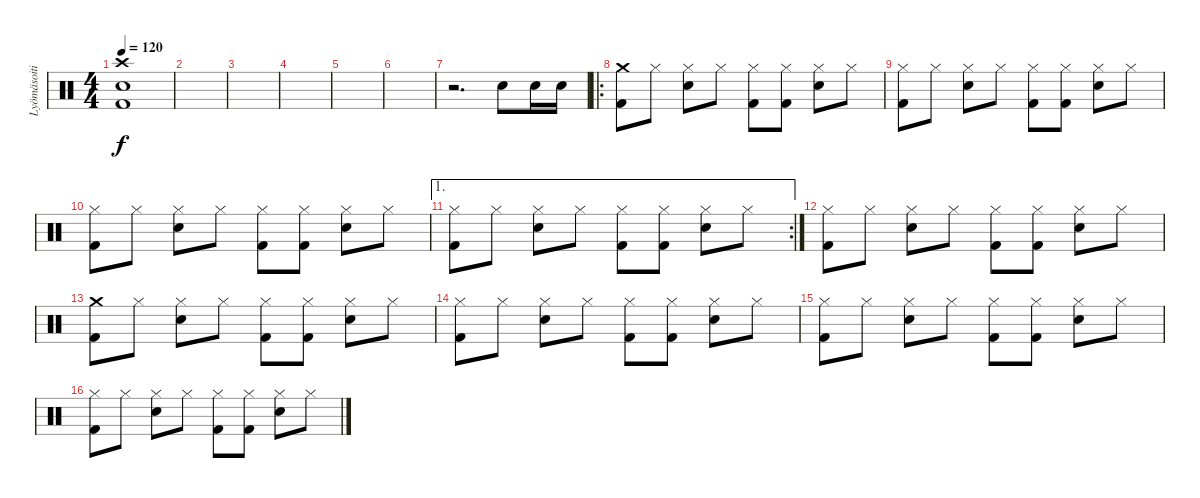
\track ("Lyömäsoitin" "Lyömäsoiti") {instrument percussion}
\staff {score}
\articulation defaults
\ts (4 4)
\tempo 120
\clef neutral
\ks c
("Crash high (hit)" "Electric Snare (hit)" "Kick (hit) 2").1{dy f} |
|
|
|
|
|
r.2{d} "Electric Snare (hit)".8 "Electric Snare (hit)".16 "Electric Snare (hit)".16 |
\ro
("Crash medium (hit)" "Kick (hit) 2").8 "Hi-Hat (closed)".8 ("Hi-Hat (closed)" "Electric Snare (hit)").8 "Hi-Hat (closed)".8 ("Hi-Hat (closed)" "Kick (hit) 2").8 ("Hi-Hat (closed)" "Kick (hit) 2").8 ("Hi-Hat (closed)" "Electric Snare (hit)").8 "Hi-Hat (closed)".8 |
("Hi-Hat (closed)" "Kick (hit) 2").8 "Hi-Hat (closed)".8 ("Hi-Hat (closed)" "Electric Snare (hit)").8 "Hi-Hat (closed)".8 ("Hi-Hat (closed)" "Kick (hit) 2").8 ("Hi-Hat (closed)" "Kick (hit) 2").8 ("Hi-Hat (closed)" "Electric Snare (hit)").8 "Hi-Hat (closed)".8 |
("Hi-Hat (closed)" "Kick (hit) 2").8 "Hi-Hat (closed)".8 ("Hi-Hat (closed)" "Electric Snare (hit)").8 "Hi-Hat (closed)".8 ("Hi-Hat (closed)" "Kick (hit) 2").8 ("Hi-Hat (closed)" "Kick (hit) 2").8 ("Hi-Hat (closed)" "Electric Snare (hit)").8 "Hi-Hat (closed)".8 |
\ae 1
\rc 2
("Hi-Hat (closed)" "Kick (hit) 2").8 "Hi-Hat (closed)".8 ("Hi-Hat (closed)" "Electric Snare (hit)").8 "Hi-Hat (closed)".8 ("Hi-Hat (closed)" "Kick (hit) 2").8 ("Hi-Hat (closed)" "Kick (hit) 2").8 ("Hi-Hat (closed)" "Electric Snare (hit)").8 "Hi-Hat (closed)".8 |
("Hi-Hat (closed)" "Kick (hit) 2").8 "Hi-Hat (closed)".8 ("Hi-Hat (closed)" "Electric Snare (hit)").8 "Hi-Hat (closed)".8 ("Hi-Hat (closed)" "Kick (hit) 2").8 ("Hi-Hat (closed)" "Kick (hit) 2").8 ("Hi-Hat (closed)" "Electric Snare (hit)").8 "Hi-Hat (closed)".8 |
("Crash medium (hit)" "Kick (hit) 2").8 "Hi-Hat (closed)".8 ("Hi-Hat (closed)" "Electric Snare (hit)").8 "Hi-Hat (closed)".8 ("Hi-Hat (closed)" "Kick (hit) 2").8 ("Hi-Hat (closed)" "Kick (hit) 2").8 ("Hi-Hat (closed)" "Electric Snare (hit)").8 "Hi-Hat (closed)".8 |
("Hi-Hat (closed)" "Kick (hit) 2").8 "Hi-Hat (closed)".8 ("Hi-Hat (closed)" "Electric Snare (hit)").8 "Hi-Hat (closed)".8 ("Hi-Hat (closed)" "Kick (hit) 2").8 ("Hi-Hat (closed)" "Kick (hit) 2").8 ("Hi-Hat (closed)" "Electric Snare (hit)").8 "Hi-Hat (closed)".8 |
("Hi-Hat (closed)" "Kick (hit) 2").8 "Hi-Hat (closed)".8 ("Hi-Hat (closed)" "Electric Snare (hit)").8 "Hi-Hat (closed)".8 ("Hi-Hat (closed)" "Kick (hit) 2").8 ("Hi-Hat (closed)" "Kick (hit) 2").8 ("Hi-Hat (closed)" "Electric Snare (hit)").8 "Hi-Hat (closed)".8 |
("Hi-Hat (closed)" "Kick (hit) 2").8 "Hi-Hat (closed)".8 ("Hi-Hat (closed)" "Electric Snare (hit)").8 "Hi-Hat (closed)".8 ("Hi-Hat (closed)" "Kick (hit) 2").8 ("Hi-Hat (closed)" "Kick (hit) 2").8 ("Hi-Hat (closed)" "Electric Snare (hit)").8 "Hi-Hat (closed)".8
